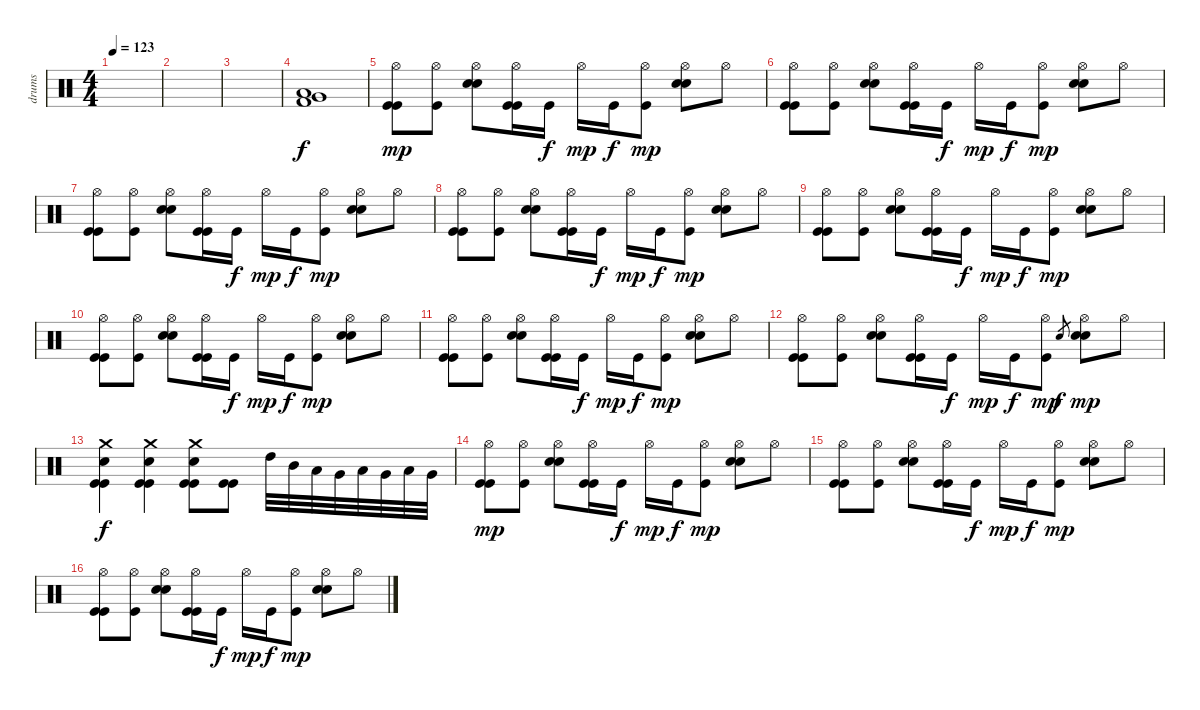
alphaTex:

\track ("drums" "drums") {instrument percussion}
\staff {score}
\articulation defaults
\ts (4 4)
\tempo 123
\clef neutral
\ks c
|
|
|
("Very Low Tom (hit)" "Low Floor Tom (hit)" "Kick (hit) 2").1 |
("Hi-Hat (open)" "Kick (hit)" "Kick (hit)").8{dy mp} ("Hi-Hat (open)" "Kick (hit)").8 ("Hi-Hat (open)" "Snare (hit) 2" "Snare (hit) 2").8 ("Hi-Hat (open)" "Kick (hit)" "Kick (hit)").16 "Kick (hit)".16{dy f} "Hi-Hat (open)".16{dy mp} "Kick (hit)".16{dy f} ("Hi-Hat (open)" "Kick (hit)").8{dy mp} ("Hi-Hat (open)" "Snare (hit) 2" "Snare (hit) 2").8 "Hi-Hat (open)".8 |
("Hi-Hat (open)" "Kick (hit)" "Kick (hit)").8 ("Hi-Hat (open)" "Kick (hit)").8 ("Hi-Hat (open)" "Snare (hit) 2" "Snare (hit) 2").8 ("Hi-Hat (open)" "Kick (hit)" "Kick (hit)").16 "Kick (hit)".16{dy f} "Hi-Hat (open)".16{dy mp} "Kick (hit)".16{dy f} ("Hi-Hat (open)" "Kick (hit)").8{dy mp} ("Hi-Hat (open)" "Snare (hit) 2" "Snare (hit) 2").8 "Hi-Hat (open)".8 |
("Hi-Hat (open)" "Kick (hit)" "Kick (hit)").8 ("Hi-Hat (open)" "Kick (hit)").8 ("Hi-Hat (open)" "Snare (hit) 2" "Snare (hit) 2").8 ("Hi-Hat (open)" "Kick (hit)" "Kick (hit)").16 "Kick (hit)".16{dy f} "Hi-Hat (open)".16{dy mp} "Kick (hit)".16{dy f} ("Hi-Hat (open)" "Kick (hit)").8{dy mp} ("Hi-Hat (open)" "Snare (hit) 2" "Snare (hit) 2").8 "Hi-Hat (open)".8 |
("Hi-Hat (open)" "Kick (hit)" "Kick (hit)").8 ("Hi-Hat (open)" "Kick (hit)").8 ("Hi-Hat (open)" "Snare (hit) 2" "Snare (hit) 2").8 ("Hi-Hat (open)" "Kick (hit)" "Kick (hit)").16 "Kick (hit)".16{dy f} "Hi-Hat (open)".16{dy mp} "Kick (hit)".16{dy f} ("Hi-Hat (open)" "Kick (hit)").8{dy mp} ("Hi-Hat (open)" "Snare (hit) 2" "Snare (hit) 2").8 "Hi-Hat (open)".8 |
("Hi-Hat (open)" "Kick (hit)" "Kick (hit)").8 ("Hi-Hat (open)" "Kick (hit)").8 ("Hi-Hat (open)" "Snare (hit) 2" "Snare (hit) 2").8 ("Hi-Hat (open)" "Kick (hit)" "Kick (hit)").16 "Kick (hit)".16{dy f} "Hi-Hat (open)".16{dy mp} "Kick (hit)".16{dy f} ("Hi-Hat (open)" "Kick (hit)").8{dy mp} ("Hi-Hat (open)" "Snare (hit) 2" "Snare (hit) 2").8 "Hi-Hat (open)".8 |
("Hi-Hat (open)" "Kick (hit)" "Kick (hit)").8 ("Hi-Hat (open)" "Kick (hit)").8 ("Hi-Hat (open)" "Snare (hit) 2" "Snare (hit) 2").8 ("Hi-Hat (open)" "Kick (hit)" "Kick (hit)").16 "Kick (hit)".16{dy f} "Hi-Hat (open)".16{dy mp} "Kick (hit)".16{dy f} ("Hi-Hat (open)" "Kick (hit)").8{dy mp} ("Hi-Hat (open)" "Snare (hit) 2" "Snare (hit) 2").8 "Hi-Hat (open)".8 |
("Hi-Hat (open)" "Kick (hit)" "Kick (hit)").8 ("Hi-Hat (open)" "Kick (hit)").8 ("Hi-Hat (open)" "Snare (hit) 2" "Snare (hit) 2").8 ("Hi-Hat (open)" "Kick (hit)" "Kick (hit)").16 "Kick (hit)".16{dy f} "Hi-Hat (open)".16{dy mp} "Kick (hit)".16{dy f} ("Hi-Hat (open)" "Kick (hit)").8{dy mp} ("Hi-Hat (open)" "Snare (hit) 2" "Snare (hit) 2").8 "Hi-Hat (open)".8 |
("Hi-Hat (open)" "Kick (hit)" "Kick (hit)").8 ("Hi-Hat (open)" "Kick (hit)").8 ("Hi-Hat (open)" "Snare (hit) 2" "Snare (hit) 2").8 ("Hi-Hat (open)" "Kick (hit)" "Kick (hit)").16 "Kick (hit)".16{dy f} "Hi-Hat (open)".16{dy mp} "Kick (hit)".16{dy f} ("Hi-Hat (open)" "Kick (hit)").8{dy mp} "Snare (hit) 2".8{gr dy f} ("Hi-Hat (open)" "Snare (hit) 2" "Snare (hit) 2").8{dy mp} "Hi-Hat (open)".8 |
("Crash medium (hit)" "Snare (hit) 2" "Kick (hit)" "Kick (hit)").4{dy f} ("Crash medium (hit)" "Snare (hit) 2" "Kick (hit)" "Kick (hit)").4 ("Crash medium (hit)" "Snare (hit) 2" "Kick (hit)" "Kick (hit)").8 ("Kick (hit)" "Kick (hit)").8 "High Tom (hit)".32 "Mid Tom (hit)".32 "Low Tom (hit)".32 "Very Low Tom (hit)".32 "Low Tom (hit)".32 "Very Low Tom (hit)".32 "Low Floor Tom (hit)".32 "Very Low Tom (hit)".32 |
("Hi-Hat (open)" "Kick (hit)" "Kick (hit)").8{dy mp} ("Hi-Hat (open)" "Kick (hit)").8 ("Hi-Hat (open)" "Snare (hit) 2" "Snare (hit) 2").8 ("Hi-Hat (open)" "Kick (hit)" "Kick (hit)").16 "Kick (hit)".16{dy f} "Hi-Hat (open)".16{dy mp} "Kick (hit)".16{dy f} ("Hi-Hat (open)" "Kick (hit)").8{dy mp} ("Hi-Hat (open)" "Snare (hit) 2" "Snare (hit) 2").8 "Hi-Hat (open)".8 |
("Hi-Hat (open)" "Kick (hit)" "Kick (hit)").8 ("Hi-Hat (open)" "Kick (hit)").8 ("Hi-Hat (open)" "Snare (hit) 2" "Snare (hit) 2").8 ("Hi-Hat (open)" "Kick (hit)" "Kick (hit)").16 "Kick (hit)".16{dy f} "Hi-Hat (open)".16{dy mp} "Kick (hit)".16{dy f} ("Hi-Hat (open)" "Kick (hit)").8{dy mp} ("Hi-Hat (open)" "Snare (hit) 2" "Snare (hit) 2").8 "Hi-Hat (open)".8 |
("Hi-Hat (open)" "Kick (hit)" "Kick (hit)").8 ("Hi-Hat (open)" "Kick (hit)").8 ("Hi-Hat (open)" "Snare (hit) 2" "Snare (hit) 2").8 ("Hi-Hat (open)" "Kick (hit)" "Kick (hit)").16 "Kick (hit)".16{dy f} "Hi-Hat (open)".16{dy mp} "Kick (hit)".16{dy f} ("Hi-Hat (open)" "Kick (hit)").8{dy mp} ("Hi-Hat (open)" "Snare (hit) 2" "Snare (hit) 2").8 "Hi-Hat (open)".8
